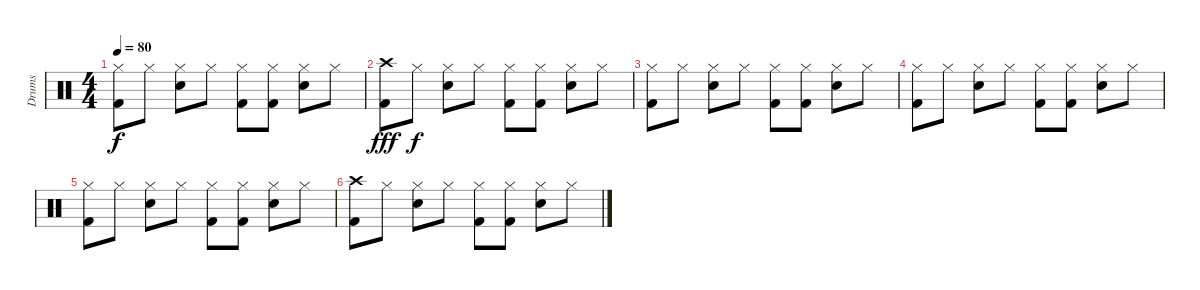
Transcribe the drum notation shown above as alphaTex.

\track ("Drums" "Drums") {instrument percussion}
\staff {score}
\articulation defaults
\ts (4 4)
\tempo 80
\clef neutral
\ks c
("Hi-Hat (closed)" "Kick (hit) 2").8{dy f} "Hi-Hat (closed)".8 ("Hi-Hat (closed)" "Electric Snare (hit)").8 "Hi-Hat (closed)".8 ("Hi-Hat (closed)" "Kick (hit) 2").8 ("Hi-Hat (closed)" "Kick (hit) 2").8 ("Hi-Hat (closed)" "Electric Snare (hit)").8 "Hi-Hat (closed)".8 |
("Crash high (hit)" "Kick (hit) 2").8{dy fff} "Hi-Hat (closed)".8{dy f} ("Hi-Hat (closed)" "Electric Snare (hit)").8 "Hi-Hat (closed)".8 ("Hi-Hat (closed)" "Kick (hit) 2").8 ("Hi-Hat (closed)" "Kick (hit) 2").8 ("Hi-Hat (closed)" "Electric Snare (hit)").8 "Hi-Hat (closed)".8 |
("Hi-Hat (closed)" "Kick (hit) 2").8 "Hi-Hat (closed)".8 ("Hi-Hat (closed)" "Electric Snare (hit)").8 "Hi-Hat (closed)".8 ("Hi-Hat (closed)" "Kick (hit) 2").8 ("Hi-Hat (closed)" "Kick (hit) 2").8 ("Hi-Hat (closed)" "Electric Snare (hit)").8 "Hi-Hat (closed)".8 |
("Hi-Hat (closed)" "Kick (hit) 2").8 "Hi-Hat (closed)".8 ("Hi-Hat (closed)" "Electric Snare (hit)").8 "Hi-Hat (closed)".8 ("Hi-Hat (closed)" "Kick (hit) 2").8 ("Hi-Hat (closed)" "Kick (hit) 2").8 ("Hi-Hat (closed)" "Electric Snare (hit)").8 "Hi-Hat (closed)".8 |
("Hi-Hat (closed)" "Kick (hit) 2").8{volume 0} "Hi-Hat (closed)".8 ("Hi-Hat (closed)" "Electric Snare (hit)").8 "Hi-Hat (closed)".8 ("Hi-Hat (closed)" "Kick (hit) 2").8 ("Hi-Hat (closed)" "Kick (hit) 2").8 ("Hi-Hat (closed)" "Electric Snare (hit)").8 "Hi-Hat (closed)".8 |
("Crash high (hit)" "Kick (hit) 2").8 "Hi-Hat (closed)".8 ("Hi-Hat (closed)" "Electric Snare (hit)").8 "Hi-Hat (closed)".8 ("Hi-Hat (closed)" "Kick (hit) 2").8 ("Hi-Hat (closed)" "Kick (hit) 2").8 ("Hi-Hat (closed)" "Electric Snare (hit)").8 "Hi-Hat (closed)".8
